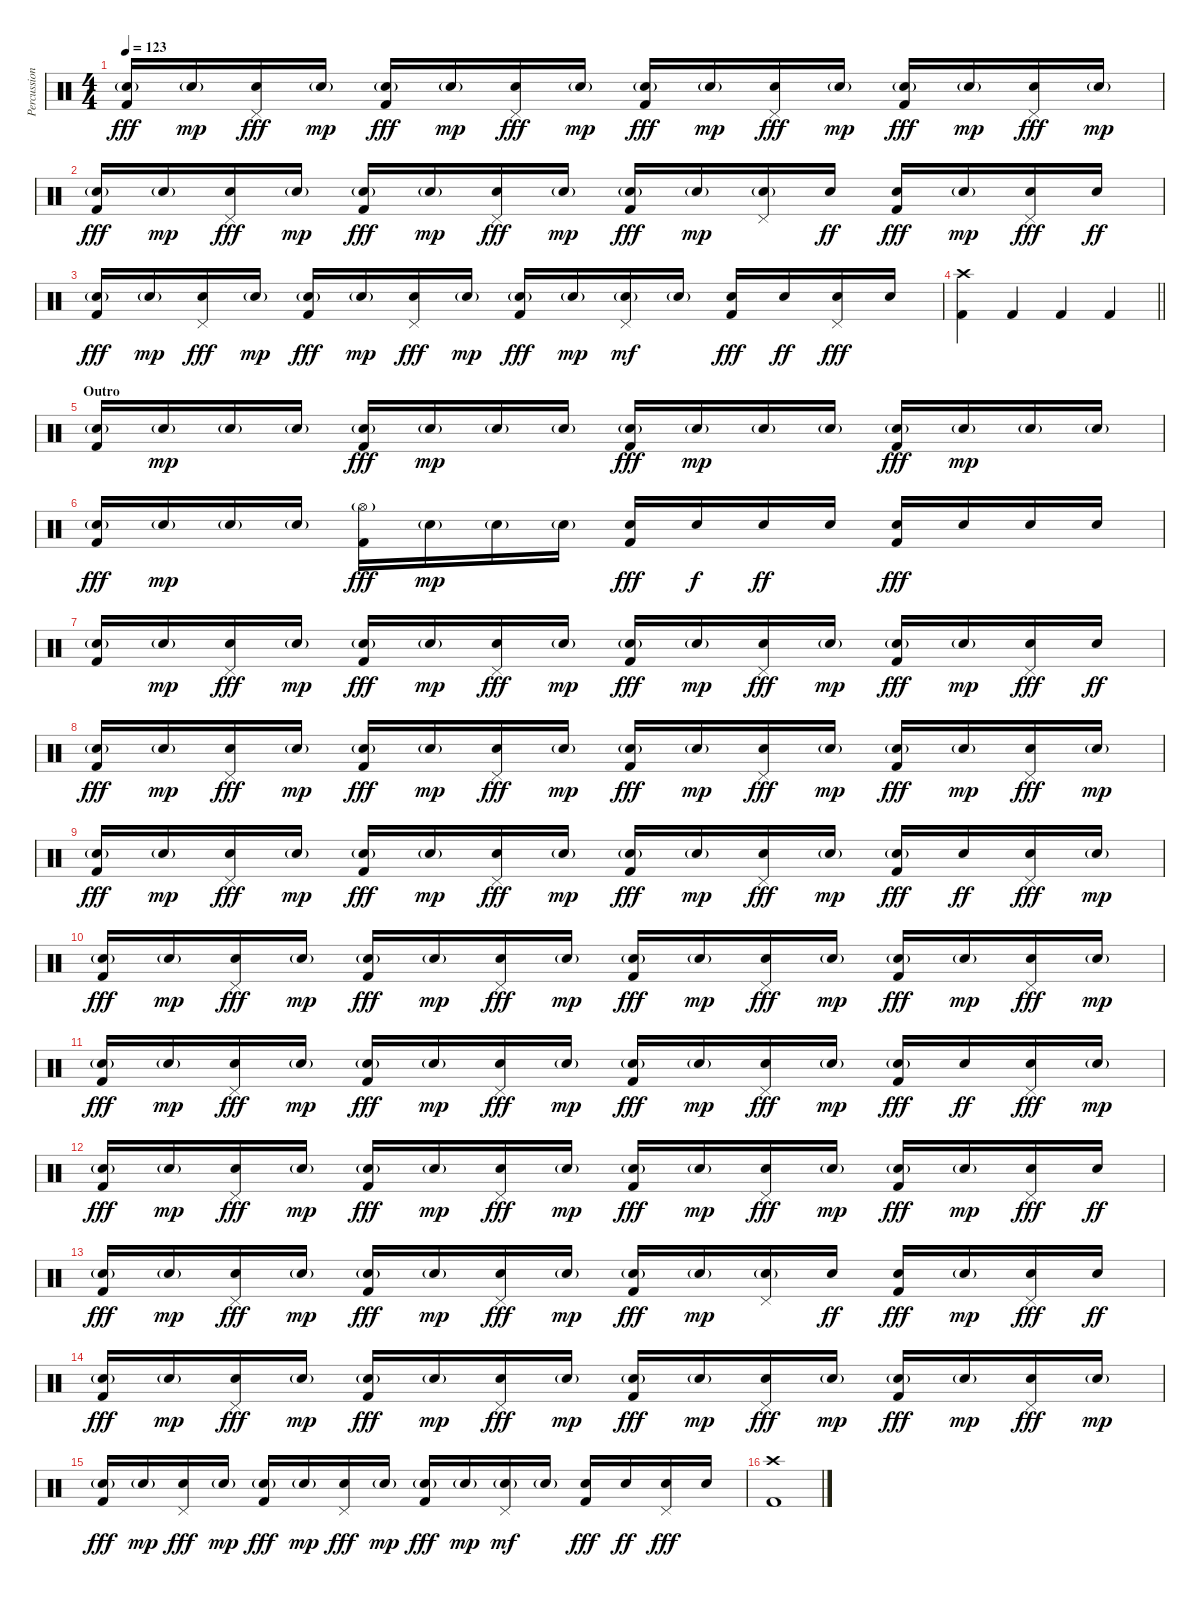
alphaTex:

\track ("Percussion" "Percussion") {instrument percussion}
\staff {score}
\articulation defaults
\ts (4 4)
\tempo 123
\clef neutral
\ks c
("Electric Snare (hit)"{g} "Kick (hit) 2").16{dy fff} "Electric Snare (hit)"{g}.16{dy mp} ("Pedal Hi-Hat (hit)" "Electric Snare (hit)").16{dy fff} "Electric Snare (hit)"{g}.16{dy mp} ("Electric Snare (hit)"{g} "Kick (hit) 2").16{dy fff} "Electric Snare (hit)"{g}.16{dy mp} ("Pedal Hi-Hat (hit)" "Electric Snare (hit)").16{dy fff} "Electric Snare (hit)"{g}.16{dy mp} ("Electric Snare (hit)"{g} "Kick (hit) 2").16{dy fff} "Electric Snare (hit)"{g}.16{dy mp} ("Pedal Hi-Hat (hit)" "Electric Snare (hit)").16{dy fff} "Electric Snare (hit)"{g}.16{dy mp} ("Electric Snare (hit)"{g} "Kick (hit) 2").16{dy fff} "Electric Snare (hit)"{g}.16{dy mp} ("Pedal Hi-Hat (hit)" "Electric Snare (hit)").16{dy fff} "Electric Snare (hit)"{g}.16{dy mp} |
("Electric Snare (hit)"{g} "Kick (hit) 2").16{dy fff} "Electric Snare (hit)"{g}.16{dy mp} ("Pedal Hi-Hat (hit)" "Electric Snare (hit)").16{dy fff} "Electric Snare (hit)"{g}.16{dy mp} ("Electric Snare (hit)"{g} "Kick (hit) 2").16{dy fff} "Electric Snare (hit)"{g}.16{dy mp} ("Pedal Hi-Hat (hit)" "Electric Snare (hit)").16{dy fff} "Electric Snare (hit)"{g}.16{dy mp} ("Electric Snare (hit)"{g} "Kick (hit) 2").16{dy fff} "Electric Snare (hit)"{g}.16{dy mp} ("Pedal Hi-Hat (hit)" "Electric Snare (hit)"{g}).16 "Electric Snare (hit)".16{dy ff} ("Electric Snare (hit)" "Kick (hit) 2").16{dy fff} "Electric Snare (hit)"{g}.16{dy mp} ("Pedal Hi-Hat (hit)" "Electric Snare (hit)").16{dy fff} "Electric Snare (hit)".16{dy ff} |
("Electric Snare (hit)"{g} "Kick (hit) 2").16{dy fff} "Electric Snare (hit)"{g}.16{dy mp} ("Pedal Hi-Hat (hit)" "Electric Snare (hit)").16{dy fff} "Electric Snare (hit)"{g}.16{dy mp} ("Electric Snare (hit)"{g} "Kick (hit) 2").16{dy fff} "Electric Snare (hit)"{g}.16{dy mp} ("Pedal Hi-Hat (hit)" "Electric Snare (hit)").16{dy fff} "Electric Snare (hit)"{g}.16{dy mp} ("Electric Snare (hit)"{g} "Kick (hit) 2").16{dy fff} "Electric Snare (hit)"{g}.16{dy mp} ("Pedal Hi-Hat (hit)" "Electric Snare (hit)"{g}).16{dy mf} "Electric Snare (hit)"{g}.16 ("Electric Snare (hit)" "Kick (hit) 2").16{dy fff} "Electric Snare (hit)".16{dy ff} ("Pedal Hi-Hat (hit)" "Electric Snare (hit)").16{dy fff} "Electric Snare (hit)".16 |
\barLineRight lightlight
("Crash high (hit)" "Kick (hit) 2").4 "Kick (hit) 2".4 "Kick (hit) 2".4 "Kick (hit) 2".4 |
\section ("" "Outro")
("Electric Snare (hit)"{g} "Kick (hit) 2").16 "Electric Snare (hit)"{g}.16{dy mp} "Electric Snare (hit)"{g}.16 "Electric Snare (hit)"{g}.16 ("Electric Snare (hit)"{g} "Kick (hit) 2").16{dy fff} "Electric Snare (hit)"{g}.16{dy mp} "Electric Snare (hit)"{g}.16 "Electric Snare (hit)"{g}.16 ("Electric Snare (hit)"{g} "Kick (hit) 2").16{dy fff} "Electric Snare (hit)"{g}.16{dy mp} "Electric Snare (hit)"{g}.16 "Electric Snare (hit)"{g}.16 ("Electric Snare (hit)"{g} "Kick (hit) 2").16{dy fff} "Electric Snare (hit)"{g}.16{dy mp} "Electric Snare (hit)"{g}.16 "Electric Snare (hit)"{g}.16 |
("Electric Snare (hit)"{g} "Kick (hit) 2").16{dy fff} "Electric Snare (hit)"{g}.16{dy mp} "Electric Snare (hit)"{g}.16 "Electric Snare (hit)"{g}.16 ("Hi-Hat (open)"{g} "Kick (hit) 2").16{dy fff} "Electric Snare (hit)"{g}.16{dy mp} "Electric Snare (hit)"{g}.16 "Electric Snare (hit)"{g}.16 ("Electric Snare (hit)" "Kick (hit) 2").16{dy fff} "Electric Snare (hit)".16{dy f} "Electric Snare (hit)".16{dy ff} "Electric Snare (hit)".16 ("Electric Snare (hit)" "Kick (hit) 2").16{dy fff} "Electric Snare (hit)".16 "Electric Snare (hit)".16 "Electric Snare (hit)".16 |
("Electric Snare (hit)"{g} "Kick (hit) 2").16 "Electric Snare (hit)"{g}.16{dy mp} ("Pedal Hi-Hat (hit)" "Electric Snare (hit)").16{dy fff} "Electric Snare (hit)"{g}.16{dy mp} ("Electric Snare (hit)"{g} "Kick (hit) 2").16{dy fff} "Electric Snare (hit)"{g}.16{dy mp} ("Pedal Hi-Hat (hit)" "Electric Snare (hit)").16{dy fff} "Electric Snare (hit)"{g}.16{dy mp} ("Electric Snare (hit)"{g} "Kick (hit) 2").16{dy fff} "Electric Snare (hit)"{g}.16{dy mp} ("Pedal Hi-Hat (hit)" "Electric Snare (hit)").16{dy fff} "Electric Snare (hit)"{g}.16{dy mp} ("Electric Snare (hit)"{g} "Kick (hit) 2").16{dy fff} "Electric Snare (hit)"{g}.16{dy mp} ("Pedal Hi-Hat (hit)" "Electric Snare (hit)").16{dy fff} "Electric Snare (hit)".16{dy ff} |
("Electric Snare (hit)"{g} "Kick (hit) 2").16{dy fff} "Electric Snare (hit)"{g}.16{dy mp} ("Pedal Hi-Hat (hit)" "Electric Snare (hit)").16{dy fff} "Electric Snare (hit)"{g}.16{dy mp} ("Electric Snare (hit)"{g} "Kick (hit) 2").16{dy fff} "Electric Snare (hit)"{g}.16{dy mp} ("Pedal Hi-Hat (hit)" "Electric Snare (hit)").16{dy fff} "Electric Snare (hit)"{g}.16{dy mp} ("Electric Snare (hit)"{g} "Kick (hit) 2").16{dy fff} "Electric Snare (hit)"{g}.16{dy mp} ("Pedal Hi-Hat (hit)" "Electric Snare (hit)").16{dy fff} "Electric Snare (hit)"{g}.16{dy mp} ("Electric Snare (hit)"{g} "Kick (hit) 2").16{dy fff} "Electric Snare (hit)"{g}.16{dy mp} ("Pedal Hi-Hat (hit)" "Electric Snare (hit)").16{dy fff} "Electric Snare (hit)"{g}.16{dy mp} |
("Electric Snare (hit)"{g} "Kick (hit) 2").16{dy fff} "Electric Snare (hit)"{g}.16{dy mp} ("Pedal Hi-Hat (hit)" "Electric Snare (hit)").16{dy fff} "Electric Snare (hit)"{g}.16{dy mp} ("Electric Snare (hit)"{g} "Kick (hit) 2").16{dy fff} "Electric Snare (hit)"{g}.16{dy mp} ("Pedal Hi-Hat (hit)" "Electric Snare (hit)").16{dy fff} "Electric Snare (hit)"{g}.16{dy mp} ("Electric Snare (hit)"{g} "Kick (hit) 2").16{dy fff} "Electric Snare (hit)"{g}.16{dy mp} ("Pedal Hi-Hat (hit)" "Electric Snare (hit)").16{dy fff} "Electric Snare (hit)"{g}.16{dy mp} ("Electric Snare (hit)"{g} "Kick (hit) 2").16{dy fff} "Electric Snare (hit)".16{dy ff} ("Pedal Hi-Hat (hit)" "Electric Snare (hit)").16{dy fff} "Electric Snare (hit)"{g}.16{dy mp} |
("Electric Snare (hit)"{g} "Kick (hit) 2").16{dy fff} "Electric Snare (hit)"{g}.16{dy mp} ("Pedal Hi-Hat (hit)" "Electric Snare (hit)").16{dy fff} "Electric Snare (hit)"{g}.16{dy mp} ("Electric Snare (hit)"{g} "Kick (hit) 2").16{dy fff} "Electric Snare (hit)"{g}.16{dy mp} ("Pedal Hi-Hat (hit)" "Electric Snare (hit)").16{dy fff} "Electric Snare (hit)"{g}.16{dy mp} ("Electric Snare (hit)"{g} "Kick (hit) 2").16{dy fff} "Electric Snare (hit)"{g}.16{dy mp} ("Pedal Hi-Hat (hit)" "Electric Snare (hit)").16{dy fff} "Electric Snare (hit)"{g}.16{dy mp} ("Electric Snare (hit)"{g} "Kick (hit) 2").16{dy fff} "Electric Snare (hit)"{g}.16{dy mp} ("Pedal Hi-Hat (hit)" "Electric Snare (hit)").16{dy fff} "Electric Snare (hit)"{g}.16{dy mp} |
("Electric Snare (hit)"{g} "Kick (hit) 2").16{dy fff} "Electric Snare (hit)"{g}.16{dy mp} ("Pedal Hi-Hat (hit)" "Electric Snare (hit)").16{dy fff} "Electric Snare (hit)"{g}.16{dy mp} ("Electric Snare (hit)"{g} "Kick (hit) 2").16{dy fff} "Electric Snare (hit)"{g}.16{dy mp} ("Pedal Hi-Hat (hit)" "Electric Snare (hit)").16{dy fff} "Electric Snare (hit)"{g}.16{dy mp} ("Electric Snare (hit)"{g} "Kick (hit) 2").16{dy fff} "Electric Snare (hit)"{g}.16{dy mp} ("Pedal Hi-Hat (hit)" "Electric Snare (hit)").16{dy fff} "Electric Snare (hit)"{g}.16{dy mp} ("Electric Snare (hit)"{g} "Kick (hit) 2").16{dy fff} "Electric Snare (hit)".16{dy ff} ("Pedal Hi-Hat (hit)" "Electric Snare (hit)").16{dy fff} "Electric Snare (hit)"{g}.16{dy mp} |
("Electric Snare (hit)"{g} "Kick (hit) 2").16{dy fff} "Electric Snare (hit)"{g}.16{dy mp} ("Pedal Hi-Hat (hit)" "Electric Snare (hit)").16{dy fff} "Electric Snare (hit)"{g}.16{dy mp} ("Electric Snare (hit)"{g} "Kick (hit) 2").16{dy fff} "Electric Snare (hit)"{g}.16{dy mp} ("Pedal Hi-Hat (hit)" "Electric Snare (hit)").16{dy fff} "Electric Snare (hit)"{g}.16{dy mp} ("Electric Snare (hit)"{g} "Kick (hit) 2").16{dy fff} "Electric Snare (hit)"{g}.16{dy mp} ("Pedal Hi-Hat (hit)" "Electric Snare (hit)").16{dy fff} "Electric Snare (hit)"{g}.16{dy mp} ("Electric Snare (hit)"{g} "Kick (hit) 2").16{dy fff} "Electric Snare (hit)"{g}.16{dy mp} ("Pedal Hi-Hat (hit)" "Electric Snare (hit)").16{dy fff} "Electric Snare (hit)".16{dy ff} |
("Electric Snare (hit)"{g} "Kick (hit) 2").16{dy fff} "Electric Snare (hit)"{g}.16{dy mp} ("Pedal Hi-Hat (hit)" "Electric Snare (hit)").16{dy fff} "Electric Snare (hit)"{g}.16{dy mp} ("Electric Snare (hit)"{g} "Kick (hit) 2").16{dy fff} "Electric Snare (hit)"{g}.16{dy mp} ("Pedal Hi-Hat (hit)" "Electric Snare (hit)").16{dy fff} "Electric Snare (hit)"{g}.16{dy mp} ("Electric Snare (hit)"{g} "Kick (hit) 2").16{dy fff} "Electric Snare (hit)"{g}.16{dy mp} ("Pedal Hi-Hat (hit)" "Electric Snare (hit)"{g}).16 "Electric Snare (hit)".16{dy ff} ("Electric Snare (hit)" "Kick (hit) 2").16{dy fff} "Electric Snare (hit)"{g}.16{dy mp} ("Pedal Hi-Hat (hit)" "Electric Snare (hit)").16{dy fff} "Electric Snare (hit)".16{dy ff} |
("Electric Snare (hit)"{g} "Kick (hit) 2").16{dy fff} "Electric Snare (hit)"{g}.16{dy mp} ("Pedal Hi-Hat (hit)" "Electric Snare (hit)").16{dy fff} "Electric Snare (hit)"{g}.16{dy mp} ("Electric Snare (hit)"{g} "Kick (hit) 2").16{dy fff} "Electric Snare (hit)"{g}.16{dy mp} ("Pedal Hi-Hat (hit)" "Electric Snare (hit)").16{dy fff} "Electric Snare (hit)"{g}.16{dy mp} ("Electric Snare (hit)"{g} "Kick (hit) 2").16{dy fff} "Electric Snare (hit)"{g}.16{dy mp} ("Pedal Hi-Hat (hit)" "Electric Snare (hit)").16{dy fff} "Electric Snare (hit)"{g}.16{dy mp} ("Electric Snare (hit)"{g} "Kick (hit) 2").16{dy fff} "Electric Snare (hit)"{g}.16{dy mp} ("Pedal Hi-Hat (hit)" "Electric Snare (hit)").16{dy fff} "Electric Snare (hit)"{g}.16{dy mp} |
("Electric Snare (hit)"{g} "Kick (hit) 2").16{dy fff} "Electric Snare (hit)"{g}.16{dy mp} ("Pedal Hi-Hat (hit)" "Electric Snare (hit)").16{dy fff} "Electric Snare (hit)"{g}.16{dy mp} ("Electric Snare (hit)"{g} "Kick (hit) 2").16{dy fff} "Electric Snare (hit)"{g}.16{dy mp} ("Pedal Hi-Hat (hit)" "Electric Snare (hit)").16{dy fff} "Electric Snare (hit)"{g}.16{dy mp} ("Electric Snare (hit)"{g} "Kick (hit) 2").16{dy fff} "Electric Snare (hit)"{g}.16{dy mp} ("Pedal Hi-Hat (hit)" "Electric Snare (hit)"{g}).16{dy mf} "Electric Snare (hit)"{g}.16 ("Electric Snare (hit)" "Kick (hit) 2").16{dy fff} "Electric Snare (hit)".16{dy ff} ("Pedal Hi-Hat (hit)" "Electric Snare (hit)").16{dy fff} "Electric Snare (hit)".16 |
("Crash high (hit)" "Kick (hit) 2").1
